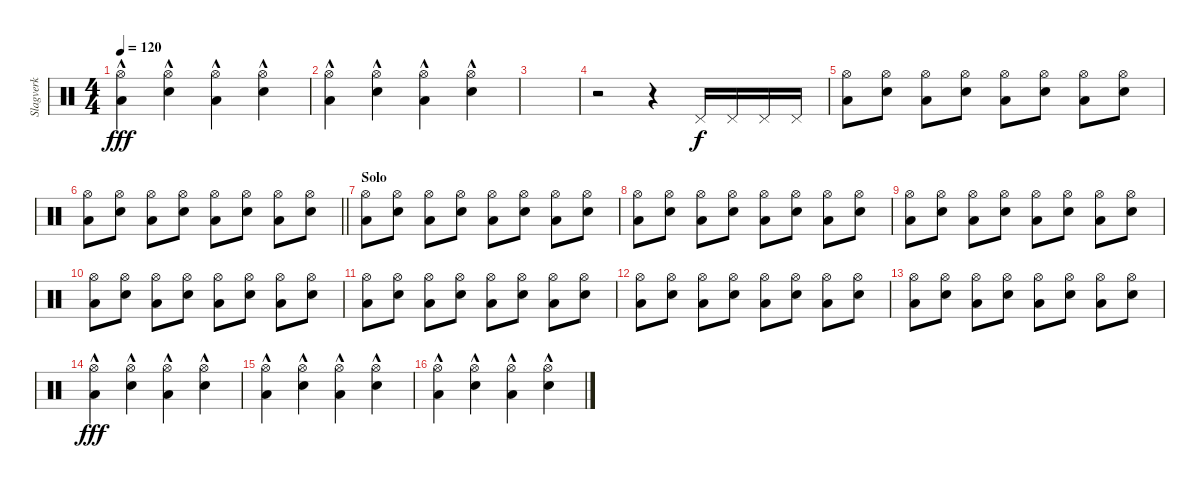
\track ("Slagverk" "Slagverk") {instrument percussion}
\staff {score}
\articulation defaults
\ts (4 4)
\tempo 120
\clef neutral
\ks c
("Hi-Hat (open)"{hac} "Low Floor Tom (hit)"{hac}).4{dy fff} ("Hi-Hat (open)"{hac} "Electric Snare (hit)"{hac}).4 ("Hi-Hat (open)"{hac} "Low Floor Tom (hit)"{hac}).4 ("Hi-Hat (open)"{hac} "Electric Snare (hit)"{hac}).4 |
("Hi-Hat (open)"{hac} "Low Floor Tom (hit)"{hac}).4 ("Hi-Hat (open)"{hac} "Electric Snare (hit)"{hac}).4 ("Hi-Hat (open)"{hac} "Low Floor Tom (hit)"{hac}).4 ("Hi-Hat (open)"{hac} "Electric Snare (hit)"{hac}).4 |
|
r.2 r.4 "Pedal Hi-Hat (hit)".16{dy f} "Pedal Hi-Hat (hit)".16 "Pedal Hi-Hat (hit)".16 "Pedal Hi-Hat (hit)".16 |
("Hi-Hat (open)" "Low Floor Tom (hit)").8 ("Hi-Hat (open)" "Electric Snare (hit)").8 ("Hi-Hat (open)" "Low Floor Tom (hit)").8 ("Hi-Hat (open)" "Electric Snare (hit)").8 ("Hi-Hat (open)" "Low Floor Tom (hit)").8 ("Hi-Hat (open)" "Electric Snare (hit)").8 ("Hi-Hat (open)" "Low Floor Tom (hit)").8 ("Hi-Hat (open)" "Electric Snare (hit)").8 |
\barLineRight lightlight
("Hi-Hat (open)" "Low Floor Tom (hit)").8 ("Hi-Hat (open)" "Electric Snare (hit)").8 ("Hi-Hat (open)" "Low Floor Tom (hit)").8 ("Hi-Hat (open)" "Electric Snare (hit)").8 ("Hi-Hat (open)" "Low Floor Tom (hit)").8 ("Hi-Hat (open)" "Electric Snare (hit)").8 ("Hi-Hat (open)" "Low Floor Tom (hit)").8 ("Hi-Hat (open)" "Electric Snare (hit)").8 |
\section ("" "Solo")
("Hi-Hat (open)" "Low Floor Tom (hit)").8 ("Hi-Hat (open)" "Electric Snare (hit)").8 ("Hi-Hat (open)" "Low Floor Tom (hit)").8 ("Hi-Hat (open)" "Electric Snare (hit)").8 ("Hi-Hat (open)" "Low Floor Tom (hit)").8 ("Hi-Hat (open)" "Electric Snare (hit)").8 ("Hi-Hat (open)" "Low Floor Tom (hit)").8 ("Hi-Hat (open)" "Electric Snare (hit)").8 |
("Hi-Hat (open)" "Low Floor Tom (hit)").8 ("Hi-Hat (open)" "Electric Snare (hit)").8 ("Hi-Hat (open)" "Low Floor Tom (hit)").8 ("Hi-Hat (open)" "Electric Snare (hit)").8 ("Hi-Hat (open)" "Low Floor Tom (hit)").8 ("Hi-Hat (open)" "Electric Snare (hit)").8 ("Hi-Hat (open)" "Low Floor Tom (hit)").8 ("Hi-Hat (open)" "Electric Snare (hit)").8 |
("Hi-Hat (open)" "Low Floor Tom (hit)").8 ("Hi-Hat (open)" "Electric Snare (hit)").8 ("Hi-Hat (open)" "Low Floor Tom (hit)").8 ("Hi-Hat (open)" "Electric Snare (hit)").8 ("Hi-Hat (open)" "Low Floor Tom (hit)").8 ("Hi-Hat (open)" "Electric Snare (hit)").8 ("Hi-Hat (open)" "Low Floor Tom (hit)").8 ("Hi-Hat (open)" "Electric Snare (hit)").8 |
("Hi-Hat (open)" "Low Floor Tom (hit)").8 ("Hi-Hat (open)" "Electric Snare (hit)").8 ("Hi-Hat (open)" "Low Floor Tom (hit)").8 ("Hi-Hat (open)" "Electric Snare (hit)").8 ("Hi-Hat (open)" "Low Floor Tom (hit)").8 ("Hi-Hat (open)" "Electric Snare (hit)").8 ("Hi-Hat (open)" "Low Floor Tom (hit)").8 ("Hi-Hat (open)" "Electric Snare (hit)").8 |
("Hi-Hat (open)" "Low Floor Tom (hit)").8 ("Hi-Hat (open)" "Electric Snare (hit)").8 ("Hi-Hat (open)" "Low Floor Tom (hit)").8 ("Hi-Hat (open)" "Electric Snare (hit)").8 ("Hi-Hat (open)" "Low Floor Tom (hit)").8 ("Hi-Hat (open)" "Electric Snare (hit)").8 ("Hi-Hat (open)" "Low Floor Tom (hit)").8 ("Hi-Hat (open)" "Electric Snare (hit)").8 |
("Hi-Hat (open)" "Low Floor Tom (hit)").8 ("Hi-Hat (open)" "Electric Snare (hit)").8 ("Hi-Hat (open)" "Low Floor Tom (hit)").8 ("Hi-Hat (open)" "Electric Snare (hit)").8 ("Hi-Hat (open)" "Low Floor Tom (hit)").8 ("Hi-Hat (open)" "Electric Snare (hit)").8 ("Hi-Hat (open)" "Low Floor Tom (hit)").8 ("Hi-Hat (open)" "Electric Snare (hit)").8 |
("Hi-Hat (open)" "Low Floor Tom (hit)").8 ("Hi-Hat (open)" "Electric Snare (hit)").8 ("Hi-Hat (open)" "Low Floor Tom (hit)").8 ("Hi-Hat (open)" "Electric Snare (hit)").8 ("Hi-Hat (open)" "Low Floor Tom (hit)").8 ("Hi-Hat (open)" "Electric Snare (hit)").8 ("Hi-Hat (open)" "Low Floor Tom (hit)").8 ("Hi-Hat (open)" "Electric Snare (hit)").8 |
("Hi-Hat (open)"{hac} "Low Floor Tom (hit)"{hac}).4{dy fff} ("Hi-Hat (open)"{hac} "Electric Snare (hit)"{hac}).4 ("Hi-Hat (open)"{hac} "Low Floor Tom (hit)"{hac}).4 ("Hi-Hat (open)"{hac} "Electric Snare (hit)"{hac}).4 |
("Hi-Hat (open)"{hac} "Low Floor Tom (hit)"{hac}).4 ("Hi-Hat (open)"{hac} "Electric Snare (hit)"{hac}).4 ("Hi-Hat (open)"{hac} "Low Floor Tom (hit)"{hac}).4 ("Hi-Hat (open)"{hac} "Electric Snare (hit)"{hac}).4 |
("Hi-Hat (open)"{hac} "Low Floor Tom (hit)"{hac}).4 ("Hi-Hat (open)"{hac} "Electric Snare (hit)"{hac}).4 ("Hi-Hat (open)"{hac} "Low Floor Tom (hit)"{hac}).4 ("Hi-Hat (open)"{hac} "Electric Snare (hit)"{hac}).4
